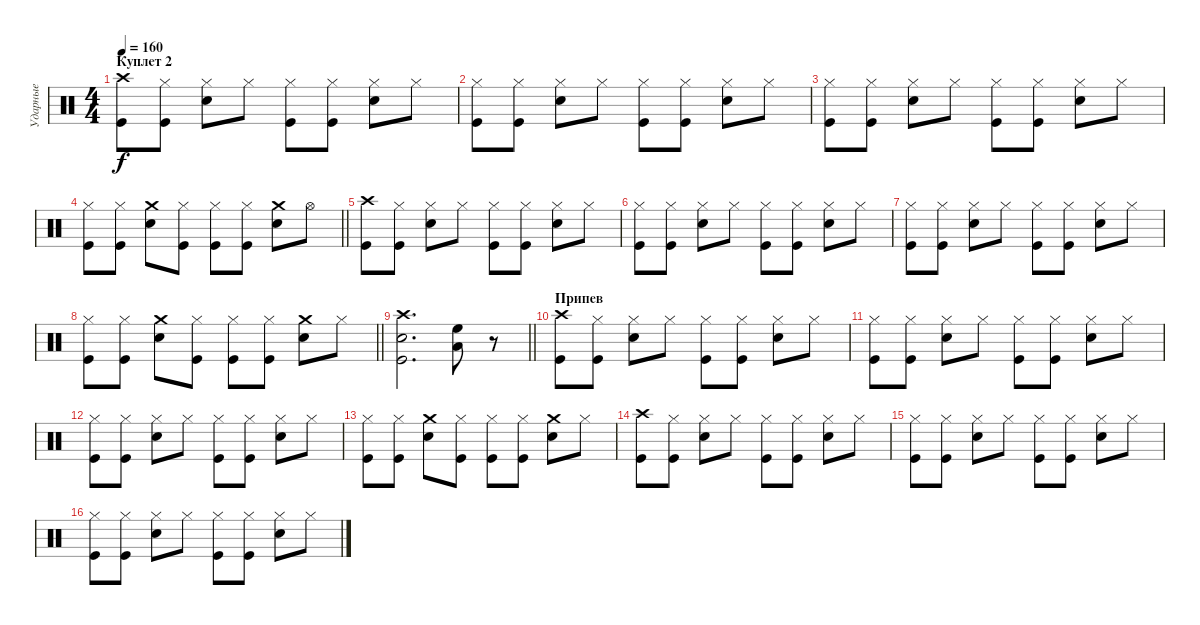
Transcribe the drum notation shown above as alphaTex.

\track ("Ударные" "Ударные") {instrument percussion}
\staff {score}
\articulation defaults
\ts (4 4)
\section ("" "Куплет 2")
\tempo 160
\clef neutral
\ks c
("Crash high (hit)" "Kick (hit)").8{dy f} ("Hi-Hat (closed)" "Kick (hit)").8 ("Hi-Hat (closed)" "Snare (hit) 2").8 "Hi-Hat (closed)".8 ("Hi-Hat (closed)" "Kick (hit)").8 ("Hi-Hat (closed)" "Kick (hit)").8 ("Hi-Hat (closed)" "Snare (hit) 2").8 "Hi-Hat (closed)".8 |
("Hi-Hat (closed)" "Kick (hit)").8 ("Hi-Hat (closed)" "Kick (hit)").8 ("Hi-Hat (closed)" "Snare (hit) 2").8 "Hi-Hat (closed)".8 ("Hi-Hat (closed)" "Kick (hit)").8 ("Hi-Hat (closed)" "Kick (hit)").8 ("Hi-Hat (closed)" "Snare (hit) 2").8 "Hi-Hat (closed)".8 |
("Hi-Hat (closed)" "Kick (hit)").8 ("Hi-Hat (closed)" "Kick (hit)").8 ("Hi-Hat (closed)" "Snare (hit) 2").8 "Hi-Hat (closed)".8 ("Hi-Hat (closed)" "Kick (hit)").8 ("Hi-Hat (closed)" "Kick (hit)").8 ("Hi-Hat (closed)" "Snare (hit) 2").8 "Hi-Hat (closed)".8 |
\barLineRight lightlight
("Hi-Hat (closed)" "Kick (hit)").8 ("Hi-Hat (closed)" "Kick (hit)").8 ("Crash medium (hit)" "Snare (hit) 2").8 ("Hi-Hat (closed)" "Kick (hit)").8 ("Hi-Hat (closed)" "Kick (hit)").8 ("Hi-Hat (closed)" "Kick (hit)").8 ("Crash medium (hit)" "Snare (hit) 2").8 "Hi-Hat (open)".8 |
("Crash high (hit)" "Kick (hit)").8 ("Hi-Hat (closed)" "Kick (hit)").8 ("Hi-Hat (closed)" "Snare (hit) 2").8 "Hi-Hat (closed)".8 ("Hi-Hat (closed)" "Kick (hit)").8 ("Hi-Hat (closed)" "Kick (hit)").8 ("Hi-Hat (closed)" "Snare (hit) 2").8 "Hi-Hat (closed)".8 |
("Hi-Hat (closed)" "Kick (hit)").8 ("Hi-Hat (closed)" "Kick (hit)").8 ("Hi-Hat (closed)" "Snare (hit) 2").8 "Hi-Hat (closed)".8 ("Hi-Hat (closed)" "Kick (hit)").8 ("Hi-Hat (closed)" "Kick (hit)").8 ("Hi-Hat (closed)" "Snare (hit) 2").8 "Hi-Hat (closed)".8 |
("Hi-Hat (closed)" "Kick (hit)").8 ("Hi-Hat (closed)" "Kick (hit)").8 ("Hi-Hat (closed)" "Snare (hit) 2").8 "Hi-Hat (closed)".8 ("Hi-Hat (closed)" "Kick (hit)").8 ("Hi-Hat (closed)" "Kick (hit)").8 ("Hi-Hat (closed)" "Snare (hit) 2").8 "Hi-Hat (closed)".8 |
\barLineRight lightlight
("Hi-Hat (closed)" "Kick (hit)").8 ("Hi-Hat (closed)" "Kick (hit)").8 ("Crash medium (hit)" "Snare (hit) 2").8 ("Hi-Hat (closed)" "Kick (hit)").8 ("Hi-Hat (closed)" "Kick (hit)").8 ("Hi-Hat (closed)" "Kick (hit)").8 ("Crash medium (hit)" "Snare (hit) 2").8 "Hi-Hat (closed)".8 |
\barLineRight lightlight
("Kick (hit)" "Snare (hit) 2" "Crash high (hit)").2{d} ("High Floor Tom (hit)" "Low Floor Tom (hit)").8 r.8 |
\section ("" "Припев")
("Crash high (hit)" "Kick (hit)").8 ("Hi-Hat (closed)" "Kick (hit)").8 ("Hi-Hat (closed)" "Snare (hit) 2").8 "Hi-Hat (closed)".8 ("Hi-Hat (closed)" "Kick (hit)").8 ("Hi-Hat (closed)" "Kick (hit)").8 ("Hi-Hat (closed)" "Snare (hit) 2").8 "Hi-Hat (closed)".8 |
("Hi-Hat (closed)" "Kick (hit)").8 ("Hi-Hat (closed)" "Kick (hit)").8 ("Hi-Hat (closed)" "Snare (hit) 2").8 "Hi-Hat (closed)".8 ("Hi-Hat (closed)" "Kick (hit)").8 ("Hi-Hat (closed)" "Kick (hit)").8 ("Hi-Hat (closed)" "Snare (hit) 2").8 "Hi-Hat (closed)".8 |
("Hi-Hat (closed)" "Kick (hit)").8 ("Hi-Hat (closed)" "Kick (hit)").8 ("Hi-Hat (closed)" "Snare (hit) 2").8 "Hi-Hat (closed)".8 ("Hi-Hat (closed)" "Kick (hit)").8 ("Hi-Hat (closed)" "Kick (hit)").8 ("Hi-Hat (closed)" "Snare (hit) 2").8 "Hi-Hat (closed)".8 |
("Hi-Hat (closed)" "Kick (hit)").8 ("Hi-Hat (closed)" "Kick (hit)").8 ("Crash medium (hit)" "Snare (hit) 2").8 ("Hi-Hat (closed)" "Kick (hit)").8 ("Hi-Hat (closed)" "Kick (hit)").8 ("Hi-Hat (closed)" "Kick (hit)").8 ("Crash medium (hit)" "Snare (hit) 2").8 "Hi-Hat (closed)".8 |
("Crash high (hit)" "Kick (hit)").8 ("Hi-Hat (closed)" "Kick (hit)").8 ("Hi-Hat (closed)" "Snare (hit) 2").8 "Hi-Hat (closed)".8 ("Hi-Hat (closed)" "Kick (hit)").8 ("Hi-Hat (closed)" "Kick (hit)").8 ("Hi-Hat (closed)" "Snare (hit) 2").8 "Hi-Hat (closed)".8 |
("Hi-Hat (closed)" "Kick (hit)").8 ("Hi-Hat (closed)" "Kick (hit)").8 ("Hi-Hat (closed)" "Snare (hit) 2").8 "Hi-Hat (closed)".8 ("Hi-Hat (closed)" "Kick (hit)").8 ("Hi-Hat (closed)" "Kick (hit)").8 ("Hi-Hat (closed)" "Snare (hit) 2").8 "Hi-Hat (closed)".8 |
("Hi-Hat (closed)" "Kick (hit)").8 ("Hi-Hat (closed)" "Kick (hit)").8 ("Hi-Hat (closed)" "Snare (hit) 2").8 "Hi-Hat (closed)".8 ("Hi-Hat (closed)" "Kick (hit)").8 ("Hi-Hat (closed)" "Kick (hit)").8 ("Hi-Hat (closed)" "Snare (hit) 2").8 "Hi-Hat (closed)".8
